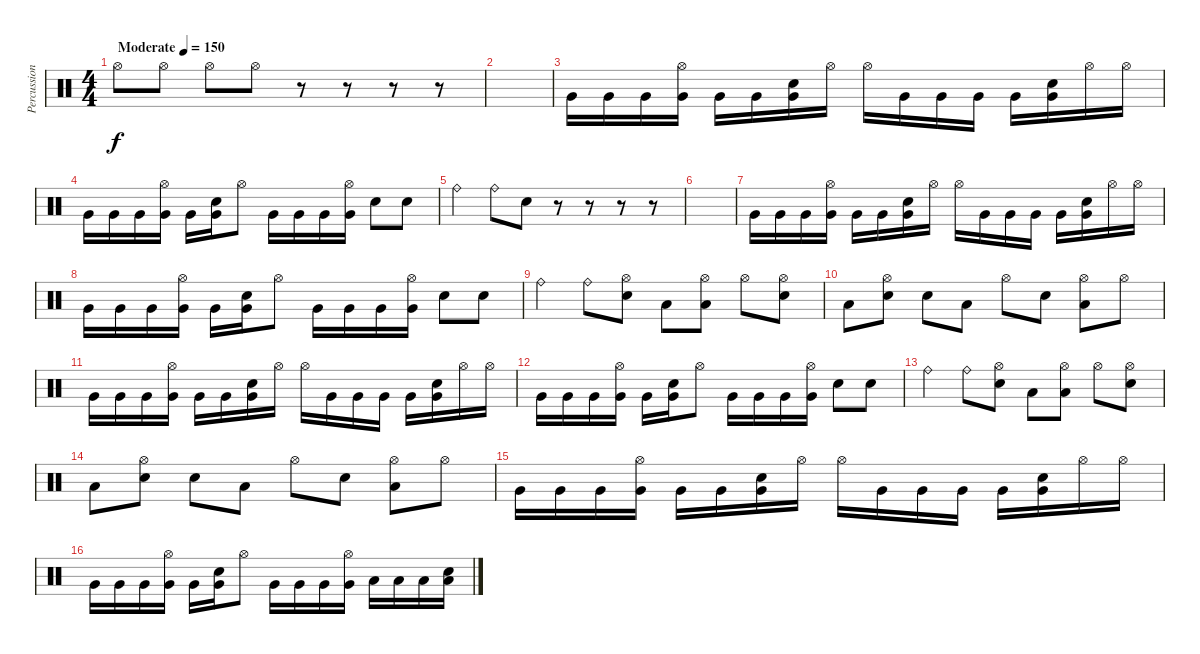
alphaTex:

\track ("Percussion" "Percussion") {instrument percussion}
\staff {score}
\articulation defaults
\ts (4 4)
\tempo (150 "Moderate")
\clef neutral
\ks c "Hi-Hat (open)".8{dy f} "Hi-Hat (open)".8 "Hi-Hat (open)".8 "Hi-Hat (open)".8
r.8 r.8 r.8 r.8 |
|
"Very Low Tom (hit)".16 "Very Low Tom (hit)".16 "Very Low Tom (hit)".16 ("Very Low Tom (hit)" "Hi-Hat (open)").16 "Very Low Tom (hit)".16 "Very Low Tom (hit)".16 ("Very Low Tom (hit)" "Electric Snare (hit)").16 "Hi-Hat (open)".16 "Hi-Hat (open)".16 "Very Low Tom (hit)".16 "Very Low Tom (hit)".16 "Very Low Tom (hit)".16 "Very Low Tom (hit)".16 ("Very Low Tom (hit)" "Electric Snare (hit)").16 "Hi-Hat (open)".16 "Hi-Hat (open)".16 |
"Very Low Tom (hit)".16 "Very Low Tom (hit)".16 "Very Low Tom (hit)".16 ("Very Low Tom (hit)" "Hi-Hat (open)").16 "Very Low Tom (hit)".16 ("Very Low Tom (hit)" "Electric Snare (hit)").16 "Hi-Hat (open)".8 "Very Low Tom (hit)".16 "Very Low Tom (hit)".16 "Very Low Tom (hit)".16 ("Very Low Tom (hit)" "Hi-Hat (open)").16 "Electric Snare (hit)".8 "Electric Snare (hit)".8 |
"Ride (bell)".4 "Ride (bell)".8 "Electric Snare (hit)".8 r.8 r.8 r.8 r.8 |
|
"Very Low Tom (hit)".16 "Very Low Tom (hit)".16 "Very Low Tom (hit)".16 ("Very Low Tom (hit)" "Hi-Hat (open)").16 "Very Low Tom (hit)".16 "Very Low Tom (hit)".16 ("Very Low Tom (hit)" "Electric Snare (hit)").16 "Hi-Hat (open)".16 "Hi-Hat (open)".16 "Very Low Tom (hit)".16 "Very Low Tom (hit)".16 "Very Low Tom (hit)".16 "Very Low Tom (hit)".16 ("Very Low Tom (hit)" "Electric Snare (hit)").16 "Hi-Hat (open)".16 "Hi-Hat (open)".16 |
"Very Low Tom (hit)".16 "Very Low Tom (hit)".16 "Very Low Tom (hit)".16 ("Very Low Tom (hit)" "Hi-Hat (open)").16 "Very Low Tom (hit)".16 ("Very Low Tom (hit)" "Electric Snare (hit)").16 "Hi-Hat (open)".8 "Very Low Tom (hit)".16 "Very Low Tom (hit)".16 "Very Low Tom (hit)".16 ("Very Low Tom (hit)" "Hi-Hat (open)").16 "Electric Snare (hit)".8 "Electric Snare (hit)".8 |
"Ride (bell)".4 "Ride (bell)".8 ("Electric Snare (hit)" "Hi-Hat (open)").8 "Low Tom (hit)".8 ("Low Tom (hit)" "Hi-Hat (open)").8 "Hi-Hat (open)".8 ("Electric Snare (hit)" "Hi-Hat (open)").8 |
"Low Tom (hit)".8 ("Electric Snare (hit)" "Hi-Hat (open)").8 "Electric Snare (hit)".8 "Low Tom (hit)".8 "Hi-Hat (open)".8 "Electric Snare (hit)".8 ("Hi-Hat (open)" "Low Tom (hit)").8 "Hi-Hat (open)".8 |
"Very Low Tom (hit)".16 "Very Low Tom (hit)".16 "Very Low Tom (hit)".16 ("Very Low Tom (hit)" "Hi-Hat (open)").16 "Very Low Tom (hit)".16 "Very Low Tom (hit)".16 ("Very Low Tom (hit)" "Electric Snare (hit)").16 "Hi-Hat (open)".16 "Hi-Hat (open)".16 "Very Low Tom (hit)".16 "Very Low Tom (hit)".16 "Very Low Tom (hit)".16 "Very Low Tom (hit)".16 ("Very Low Tom (hit)" "Electric Snare (hit)").16 "Hi-Hat (open)".16 "Hi-Hat (open)".16 |
"Very Low Tom (hit)".16 "Very Low Tom (hit)".16 "Very Low Tom (hit)".16 ("Very Low Tom (hit)" "Hi-Hat (open)").16 "Very Low Tom (hit)".16 ("Very Low Tom (hit)" "Electric Snare (hit)").16 "Hi-Hat (open)".8 "Very Low Tom (hit)".16 "Very Low Tom (hit)".16 "Very Low Tom (hit)".16 ("Very Low Tom (hit)" "Hi-Hat (open)").16 "Electric Snare (hit)".8 "Electric Snare (hit)".8 |
"Ride (bell)".4 "Ride (bell)".8 ("Electric Snare (hit)" "Hi-Hat (open)").8 "Low Tom (hit)".8 ("Low Tom (hit)" "Hi-Hat (open)").8 "Hi-Hat (open)".8 ("Electric Snare (hit)" "Hi-Hat (open)").8 |
"Low Tom (hit)".8 ("Electric Snare (hit)" "Hi-Hat (open)").8 "Electric Snare (hit)".8 "Low Tom (hit)".8 "Hi-Hat (open)".8 "Electric Snare (hit)".8 ("Hi-Hat (open)" "Low Tom (hit)").8 "Hi-Hat (open)".8 |
"Very Low Tom (hit)".16 "Very Low Tom (hit)".16 "Very Low Tom (hit)".16 ("Very Low Tom (hit)" "Hi-Hat (open)").16 "Very Low Tom (hit)".16 "Very Low Tom (hit)".16 ("Very Low Tom (hit)" "Electric Snare (hit)").16 "Hi-Hat (open)".16 "Hi-Hat (open)".16 "Very Low Tom (hit)".16 "Very Low Tom (hit)".16 "Very Low Tom (hit)".16 "Very Low Tom (hit)".16 ("Very Low Tom (hit)" "Electric Snare (hit)").16 "Hi-Hat (open)".16 "Hi-Hat (open)".16 |
"Very Low Tom (hit)".16 "Very Low Tom (hit)".16 "Very Low Tom (hit)".16 ("Very Low Tom (hit)" "Hi-Hat (open)").16 "Very Low Tom (hit)".16 ("Very Low Tom (hit)" "Electric Snare (hit)").16 "Hi-Hat (open)".8 "Very Low Tom (hit)".16 "Very Low Tom (hit)".16 "Very Low Tom (hit)".16 ("Very Low Tom (hit)" "Hi-Hat (open)").16 "Low Tom (hit)".16 "Low Tom (hit)".16 "Low Tom (hit)".16 ("Low Tom (hit)" "Electric Snare (hit)").16
